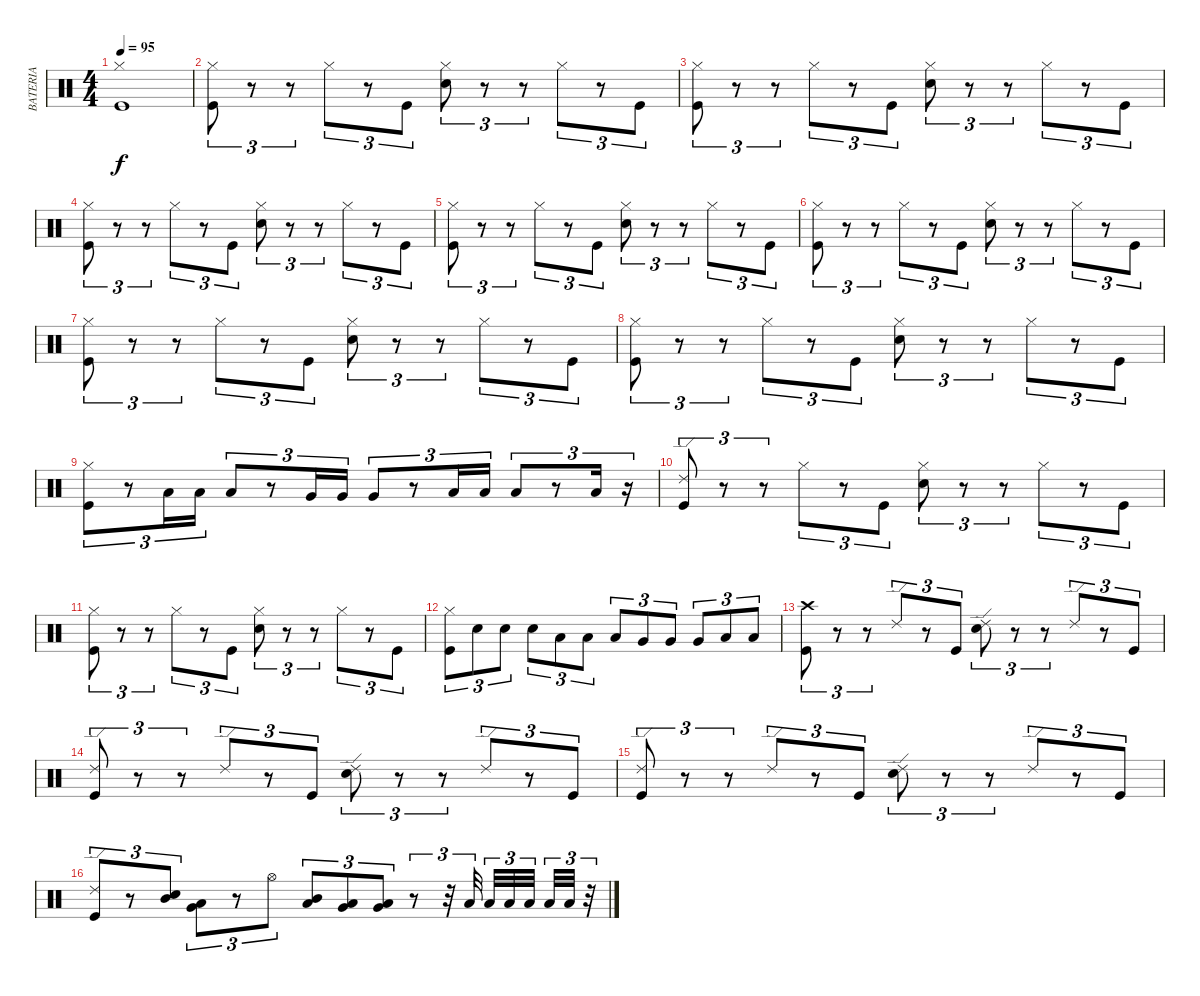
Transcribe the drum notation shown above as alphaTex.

\track ("BATERIA" "BATERIA") {instrument percussion}
\staff {score}
\articulation defaults
\ts (4 4)
\tempo 95
\clef neutral
\ks c
("Hi-Hat (closed)" "Kick (hit)").1{dy f} |
("Hi-Hat (closed)" "Kick (hit)").8{tu (3 2)} r.8{tu (3 2)} r.8{tu (3 2)} "Hi-Hat (closed)".8{tu (3 2)} r.8{tu (3 2)} "Kick (hit)".8{tu (3 2)} ("Hi-Hat (closed)" "Snare (hit) 2").8{tu (3 2)} r.8{tu (3 2)} r.8{tu (3 2)} "Hi-Hat (closed)".8{tu (3 2)} r.8{tu (3 2)} "Kick (hit)".8{tu (3 2)} |
("Hi-Hat (closed)" "Kick (hit)").8{tu (3 2)} r.8{tu (3 2)} r.8{tu (3 2)} "Hi-Hat (closed)".8{tu (3 2)} r.8{tu (3 2)} "Kick (hit)".8{tu (3 2)} ("Hi-Hat (closed)" "Snare (hit) 2").8{tu (3 2)} r.8{tu (3 2)} r.8{tu (3 2)} "Hi-Hat (closed)".8{tu (3 2)} r.8{tu (3 2)} "Kick (hit)".8{tu (3 2)} |
("Hi-Hat (closed)" "Kick (hit)").8{tu (3 2)} r.8{tu (3 2)} r.8{tu (3 2)} "Hi-Hat (closed)".8{tu (3 2)} r.8{tu (3 2)} "Kick (hit)".8{tu (3 2)} ("Hi-Hat (closed)" "Snare (hit) 2").8{tu (3 2)} r.8{tu (3 2)} r.8{tu (3 2)} "Hi-Hat (closed)".8{tu (3 2)} r.8{tu (3 2)} "Kick (hit)".8{tu (3 2)} |
("Hi-Hat (closed)" "Kick (hit)").8{tu (3 2)} r.8{tu (3 2)} r.8{tu (3 2)} "Hi-Hat (closed)".8{tu (3 2)} r.8{tu (3 2)} "Kick (hit)".8{tu (3 2)} ("Hi-Hat (closed)" "Snare (hit) 2").8{tu (3 2)} r.8{tu (3 2)} r.8{tu (3 2)} "Hi-Hat (closed)".8{tu (3 2)} r.8{tu (3 2)} "Kick (hit)".8{tu (3 2)} |
("Hi-Hat (closed)" "Kick (hit)").8{tu (3 2)} r.8{tu (3 2)} r.8{tu (3 2)} "Hi-Hat (closed)".8{tu (3 2)} r.8{tu (3 2)} "Kick (hit)".8{tu (3 2)} ("Hi-Hat (closed)" "Snare (hit) 2").8{tu (3 2)} r.8{tu (3 2)} r.8{tu (3 2)} "Hi-Hat (closed)".8{tu (3 2)} r.8{tu (3 2)} "Kick (hit)".8{tu (3 2)} |
("Hi-Hat (closed)" "Kick (hit)").8{tu (3 2)} r.8{tu (3 2)} r.8{tu (3 2)} "Hi-Hat (closed)".8{tu (3 2)} r.8{tu (3 2)} "Kick (hit)".8{tu (3 2)} ("Hi-Hat (closed)" "Snare (hit) 2").8{tu (3 2)} r.8{tu (3 2)} r.8{tu (3 2)} "Hi-Hat (closed)".8{tu (3 2)} r.8{tu (3 2)} "Kick (hit)".8{tu (3 2)} |
("Hi-Hat (closed)" "Kick (hit)").8{tu (3 2)} r.8{tu (3 2)} r.8{tu (3 2)} "Hi-Hat (closed)".8{tu (3 2)} r.8{tu (3 2)} "Kick (hit)".8{tu (3 2)} ("Hi-Hat (closed)" "Snare (hit) 2").8{tu (3 2)} r.8{tu (3 2)} r.8{tu (3 2)} "Hi-Hat (closed)".8{tu (3 2)} r.8{tu (3 2)} "Kick (hit)".8{tu (3 2)} |
("Hi-Hat (closed)" "Kick (hit)").8{tu (3 2)} r.8{tu (3 2)} "Low Tom (hit)".16{tu (3 2)} "Low Tom (hit)".16{tu (3 2)} "Low Tom (hit)".8{tu (3 2)} r.8{tu (3 2)} "Very Low Tom (hit)".16{tu (3 2)} "Very Low Tom (hit)".16{tu (3 2)} "Very Low Tom (hit)".8{tu (3 2)} r.8{tu (3 2)} "Low Floor Tom (hit)".16{tu (3 2)} "Low Floor Tom (hit)".16{tu (3 2)} "Low Floor Tom (hit)".8{tu (3 2)} r.8{tu (3 2)} "Low Floor Tom (hit)".16{tu (3 2)} r.16{tu (3 2)} |
("Ride (edge) 2" "Kick (hit)").8{tu (3 2)} r.8{tu (3 2)} r.8{tu (3 2)} "Hi-Hat (closed)".8{tu (3 2)} r.8{tu (3 2)} "Kick (hit)".8{tu (3 2)} ("Hi-Hat (closed)" "Snare (hit) 2").8{tu (3 2)} r.8{tu (3 2)} r.8{tu (3 2)} "Hi-Hat (closed)".8{tu (3 2)} r.8{tu (3 2)} "Kick (hit)".8{tu (3 2)} |
("Hi-Hat (closed)" "Kick (hit)").8{tu (3 2)} r.8{tu (3 2)} r.8{tu (3 2)} "Hi-Hat (closed)".8{tu (3 2)} r.8{tu (3 2)} "Kick (hit)".8{tu (3 2)} ("Hi-Hat (closed)" "Snare (hit) 2").8{tu (3 2)} r.8{tu (3 2)} r.8{tu (3 2)} "Hi-Hat (closed)".8{tu (3 2)} r.8{tu (3 2)} "Kick (hit)".8{tu (3 2)} |
("Hi-Hat (closed)" "Kick (hit)").8{tu (3 2)} "Snare (hit) 2".8{tu (3 2)} "Snare (hit) 2".8{tu (3 2)} "Snare (hit) 2".8{tu (3 2)} "Low Tom (hit)".8{tu (3 2)} "Low Tom (hit)".8{tu (3 2)} "Low Tom (hit)".8{tu (3 2)} "Very Low Tom (hit)".8{tu (3 2)} "Very Low Tom (hit)".8{tu (3 2)} "Very Low Tom (hit)".8{tu (3 2)} "Low Floor Tom (hit)".8{tu (3 2)} "Low Floor Tom (hit)".8{tu (3 2)} |
("Crash high (hit)" "Kick (hit)").8{tu (3 2)} r.8{tu (3 2)} r.8{tu (3 2)} "Ride (edge) 2".8{tu (3 2)} r.8{tu (3 2)} "Kick (hit)".8{tu (3 2)} ("Ride (edge) 2" "Snare (hit) 2").8{tu (3 2)} r.8{tu (3 2)} r.8{tu (3 2)} "Ride (edge) 2".8{tu (3 2)} r.8{tu (3 2)} "Kick (hit)".8{tu (3 2)} |
("Ride (edge) 2" "Kick (hit)").8{tu (3 2)} r.8{tu (3 2)} r.8{tu (3 2)} "Ride (edge) 2".8{tu (3 2)} r.8{tu (3 2)} "Kick (hit)".8{tu (3 2)} ("Ride (edge) 2" "Snare (hit) 2").8{tu (3 2)} r.8{tu (3 2)} r.8{tu (3 2)} "Ride (edge) 2".8{tu (3 2)} r.8{tu (3 2)} "Kick (hit)".8{tu (3 2)} |
("Ride (edge) 2" "Kick (hit)").8{tu (3 2)} r.8{tu (3 2)} r.8{tu (3 2)} "Ride (edge) 2".8{tu (3 2)} r.8{tu (3 2)} "Kick (hit)".8{tu (3 2)} ("Ride (edge) 2" "Snare (hit) 2").8{tu (3 2)} r.8{tu (3 2)} r.8{tu (3 2)} "Ride (edge) 2".8{tu (3 2)} r.8{tu (3 2)} "Kick (hit)".8{tu (3 2)} |
("Ride (edge) 2" "Kick (hit)").8{tu (3 2)} r.8{tu (3 2)} ("Mid Tom (hit)" "Snare (hit) 2").8{tu (3 2)} ("Very Low Tom (hit)" "Low Floor Tom (hit)").8{tu (3 2)} r.8{tu (3 2)} "Hi-Hat (open)".8{tu (3 2)} ("Low Tom (hit)" "Mid Tom (hit)").8{tu (3 2)} ("Low Tom (hit)" "Very Low Tom (hit)").8{tu (3 2)} ("Low Floor Tom (hit)" "Very Low Tom (hit)").8{tu (3 2)} r.8{tu (3 2)} r.32{tu (3 2)} "Low Floor Tom (hit)".32{tu (3 2) beam splitsecondary} "Low Floor Tom (hit)".32{tu (3 2)} "Low Floor Tom (hit)".32{tu (3 2)} "Low Floor Tom (hit)".32{tu (3 2) beam splitsecondary} "Low Floor Tom (hit)".32{tu (3 2)} "Low Floor Tom (hit)".32{tu (3 2)} r.32{tu (3 2)}
